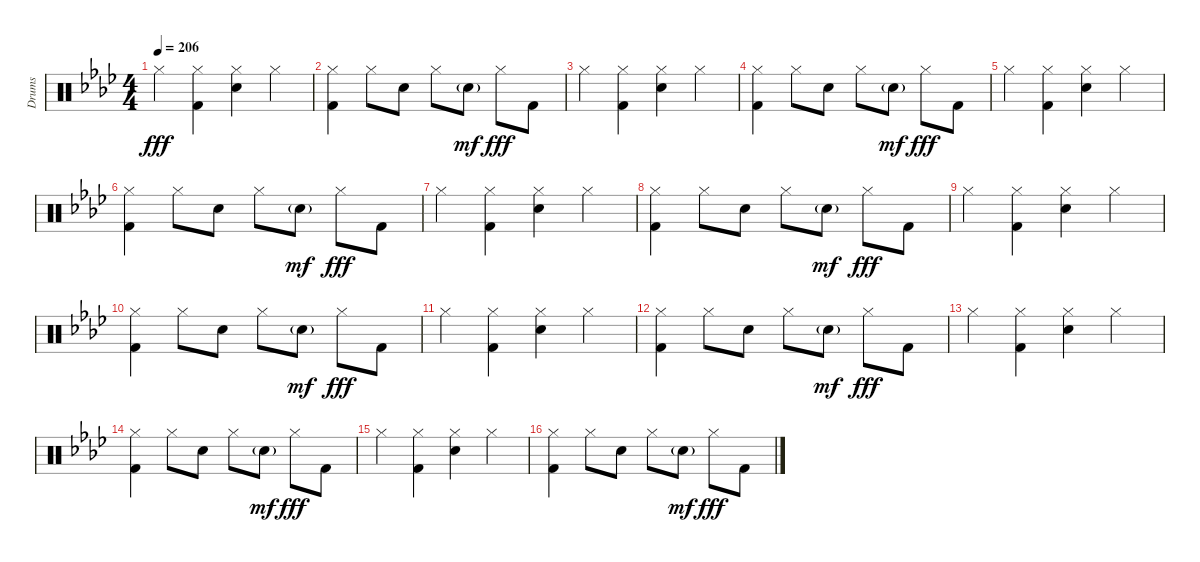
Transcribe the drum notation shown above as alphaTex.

\track ("Drums" "Drums") {instrument percussion}
\staff {score}
\articulation defaults
\ts (4 4)
\tempo 206
\clef neutral
\ks ab "Hi-Hat (closed)".4{dy fff}
("Hi-Hat (closed)" "Kick (hit) 2").4 ("Hi-Hat (closed)" "Electric Snare (hit)").4 "Hi-Hat (closed)".4 |
("Hi-Hat (closed)" "Kick (hit) 2").4 "Hi-Hat (closed)".8 "Electric Snare (hit)".8 "Hi-Hat (closed)".8 "Electric Snare (hit)"{g}.8{dy mf} "Hi-Hat (closed)".8{dy fff} "Kick (hit) 2".8 |
"Hi-Hat (closed)".4 ("Hi-Hat (closed)" "Kick (hit) 2").4 ("Hi-Hat (closed)" "Electric Snare (hit)").4 "Hi-Hat (closed)".4 |
("Hi-Hat (closed)" "Kick (hit) 2").4 "Hi-Hat (closed)".8 "Electric Snare (hit)".8 "Hi-Hat (closed)".8 "Electric Snare (hit)"{g}.8{dy mf} "Hi-Hat (closed)".8{dy fff} "Kick (hit) 2".8 |
"Hi-Hat (closed)".4 ("Hi-Hat (closed)" "Kick (hit) 2").4 ("Hi-Hat (closed)" "Electric Snare (hit)").4 "Hi-Hat (closed)".4 |
("Hi-Hat (closed)" "Kick (hit) 2").4 "Hi-Hat (closed)".8 "Electric Snare (hit)".8 "Hi-Hat (closed)".8 "Electric Snare (hit)"{g}.8{dy mf} "Hi-Hat (closed)".8{dy fff} "Kick (hit) 2".8 |
"Hi-Hat (closed)".4 ("Hi-Hat (closed)" "Kick (hit) 2").4 ("Hi-Hat (closed)" "Electric Snare (hit)").4 "Hi-Hat (closed)".4 |
("Hi-Hat (closed)" "Kick (hit) 2").4 "Hi-Hat (closed)".8 "Electric Snare (hit)".8 "Hi-Hat (closed)".8 "Electric Snare (hit)"{g}.8{dy mf} "Hi-Hat (closed)".8{dy fff} "Kick (hit) 2".8 |
"Hi-Hat (closed)".4 ("Hi-Hat (closed)" "Kick (hit) 2").4 ("Hi-Hat (closed)" "Electric Snare (hit)").4 "Hi-Hat (closed)".4 |
("Hi-Hat (closed)" "Kick (hit) 2").4 "Hi-Hat (closed)".8 "Electric Snare (hit)".8 "Hi-Hat (closed)".8 "Electric Snare (hit)"{g}.8{dy mf} "Hi-Hat (closed)".8{dy fff} "Kick (hit) 2".8 |
"Hi-Hat (closed)".4 ("Hi-Hat (closed)" "Kick (hit) 2").4 ("Hi-Hat (closed)" "Electric Snare (hit)").4 "Hi-Hat (closed)".4 |
("Hi-Hat (closed)" "Kick (hit) 2").4 "Hi-Hat (closed)".8 "Electric Snare (hit)".8 "Hi-Hat (closed)".8 "Electric Snare (hit)"{g}.8{dy mf} "Hi-Hat (closed)".8{dy fff} "Kick (hit) 2".8 |
"Hi-Hat (closed)".4 ("Hi-Hat (closed)" "Kick (hit) 2").4 ("Hi-Hat (closed)" "Electric Snare (hit)").4 "Hi-Hat (closed)".4 |
("Hi-Hat (closed)" "Kick (hit) 2").4 "Hi-Hat (closed)".8 "Electric Snare (hit)".8 "Hi-Hat (closed)".8 "Electric Snare (hit)"{g}.8{dy mf} "Hi-Hat (closed)".8{dy fff} "Kick (hit) 2".8 |
"Hi-Hat (closed)".4 ("Hi-Hat (closed)" "Kick (hit) 2").4 ("Hi-Hat (closed)" "Electric Snare (hit)").4 "Hi-Hat (closed)".4 |
("Hi-Hat (closed)" "Kick (hit) 2").4 "Hi-Hat (closed)".8 "Electric Snare (hit)".8 "Hi-Hat (closed)".8 "Electric Snare (hit)"{g}.8{dy mf} "Hi-Hat (closed)".8{dy fff} "Kick (hit) 2".8
